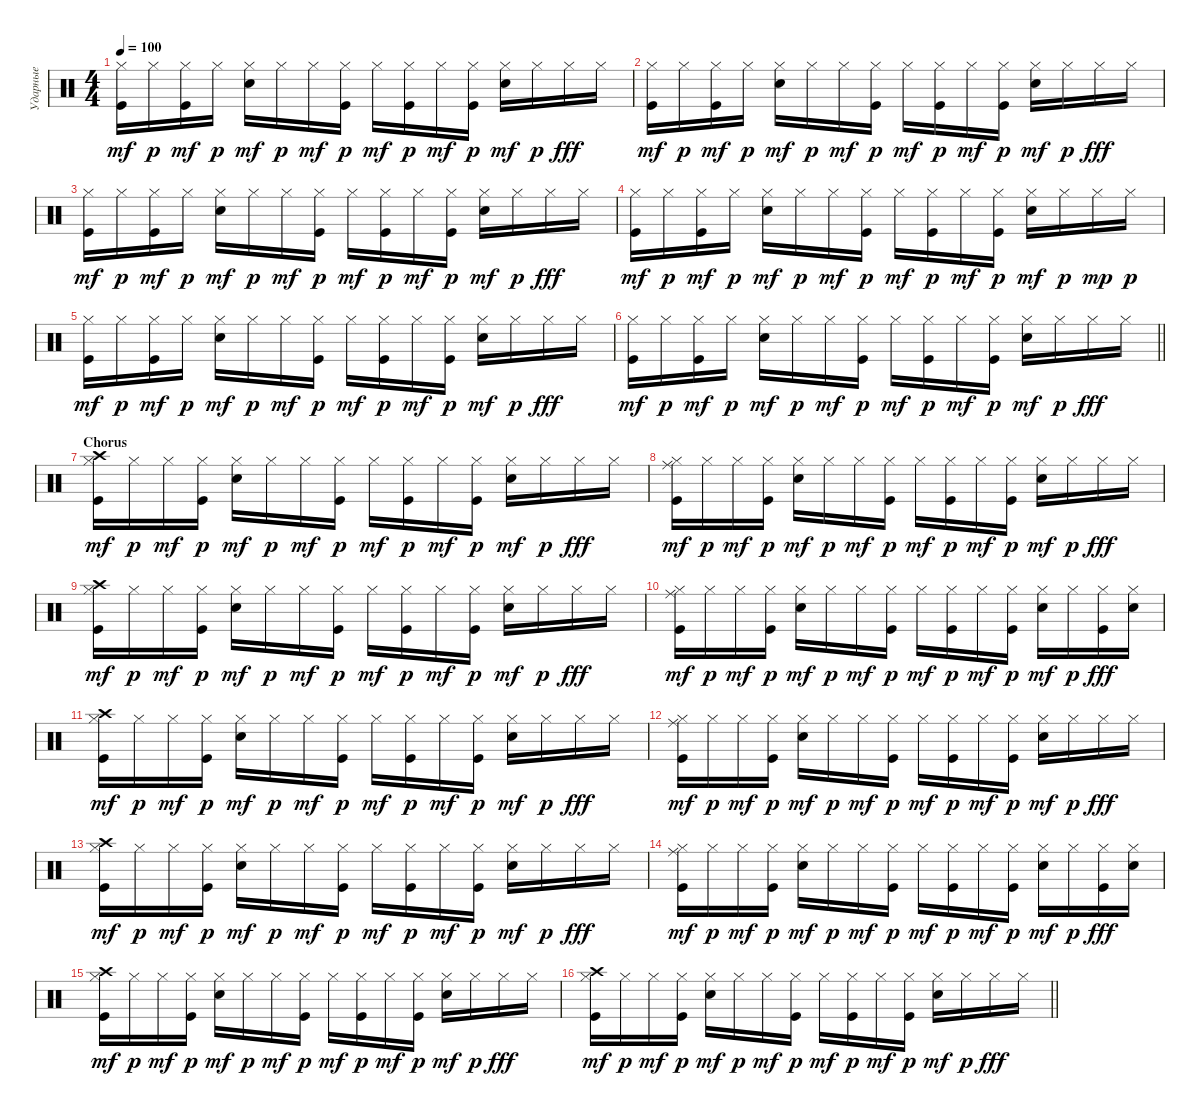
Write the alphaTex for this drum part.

\track ("Ударные" "Ударные") {instrument percussion}
\staff {score}
\articulation defaults
\ts (4 4)
\tempo 100
\clef neutral
\ks c
("Hi-Hat (closed)" "Kick (hit)").16{dy mf} "Hi-Hat (closed)".16{dy p} ("Hi-Hat (closed)" "Kick (hit)").16{dy mf} "Hi-Hat (closed)".16{dy p} ("Hi-Hat (closed)" "Snare (hit) 2").16{dy mf} "Hi-Hat (closed)".16{dy p} "Hi-Hat (closed)".16{dy mf} ("Hi-Hat (closed)" "Kick (hit)").16{dy p} "Hi-Hat (closed)".16{dy mf} ("Hi-Hat (closed)" "Kick (hit)").16{dy p} "Hi-Hat (closed)".16{dy mf} ("Hi-Hat (closed)" "Kick (hit)").16{dy p} ("Hi-Hat (closed)" "Snare (hit) 2").16{dy mf} "Hi-Hat (closed)".16{dy p} "Hi-Hat (closed)".16{dy fff} "Hi-Hat (closed)".16 |
("Hi-Hat (closed)" "Kick (hit)").16{dy mf} "Hi-Hat (closed)".16{dy p} ("Hi-Hat (closed)" "Kick (hit)").16{dy mf} "Hi-Hat (closed)".16{dy p} ("Hi-Hat (closed)" "Snare (hit) 2").16{dy mf} "Hi-Hat (closed)".16{dy p} "Hi-Hat (closed)".16{dy mf} ("Hi-Hat (closed)" "Kick (hit)").16{dy p} "Hi-Hat (closed)".16{dy mf} ("Hi-Hat (closed)" "Kick (hit)").16{dy p} "Hi-Hat (closed)".16{dy mf} ("Hi-Hat (closed)" "Kick (hit)").16{dy p} ("Hi-Hat (closed)" "Snare (hit) 2").16{dy mf} "Hi-Hat (closed)".16{dy p} "Hi-Hat (closed)".16{dy fff} "Hi-Hat (closed)".16 |
("Hi-Hat (closed)" "Kick (hit)").16{dy mf} "Hi-Hat (closed)".16{dy p} ("Hi-Hat (closed)" "Kick (hit)").16{dy mf} "Hi-Hat (closed)".16{dy p} ("Hi-Hat (closed)" "Snare (hit) 2").16{dy mf} "Hi-Hat (closed)".16{dy p} "Hi-Hat (closed)".16{dy mf} ("Hi-Hat (closed)" "Kick (hit)").16{dy p} "Hi-Hat (closed)".16{dy mf} ("Hi-Hat (closed)" "Kick (hit)").16{dy p} "Hi-Hat (closed)".16{dy mf} ("Hi-Hat (closed)" "Kick (hit)").16{dy p} ("Hi-Hat (closed)" "Snare (hit) 2").16{dy mf} "Hi-Hat (closed)".16{dy p} "Hi-Hat (closed)".16{dy fff} "Hi-Hat (closed)".16 |
("Hi-Hat (closed)" "Kick (hit)").16{dy mf} "Hi-Hat (closed)".16{dy p} ("Hi-Hat (closed)" "Kick (hit)").16{dy mf} "Hi-Hat (closed)".16{dy p} ("Hi-Hat (closed)" "Snare (hit) 2").16{dy mf} "Hi-Hat (closed)".16{dy p} "Hi-Hat (closed)".16{dy mf} ("Hi-Hat (closed)" "Kick (hit)").16{dy p} "Hi-Hat (closed)".16{dy mf} ("Hi-Hat (closed)" "Kick (hit)").16{dy p} "Hi-Hat (closed)".16{dy mf} ("Hi-Hat (closed)" "Kick (hit)").16{dy p} ("Hi-Hat (closed)" "Snare (hit) 2").16{dy mf} "Hi-Hat (closed)".16{dy p} "Hi-Hat (closed)".16{dy mp} "Hi-Hat (closed)".16{dy p} |
("Hi-Hat (closed)" "Kick (hit)").16{dy mf} "Hi-Hat (closed)".16{dy p} ("Hi-Hat (closed)" "Kick (hit)").16{dy mf} "Hi-Hat (closed)".16{dy p} ("Hi-Hat (closed)" "Snare (hit) 2").16{dy mf} "Hi-Hat (closed)".16{dy p} "Hi-Hat (closed)".16{dy mf} ("Hi-Hat (closed)" "Kick (hit)").16{dy p} "Hi-Hat (closed)".16{dy mf} ("Hi-Hat (closed)" "Kick (hit)").16{dy p} "Hi-Hat (closed)".16{dy mf} ("Hi-Hat (closed)" "Kick (hit)").16{dy p} ("Hi-Hat (closed)" "Snare (hit) 2").16{dy mf} "Hi-Hat (closed)".16{dy p} "Hi-Hat (closed)".16{dy fff} "Hi-Hat (closed)".16 |
\barLineRight lightlight
("Hi-Hat (closed)" "Kick (hit)").16{dy mf} "Hi-Hat (closed)".16{dy p} ("Hi-Hat (closed)" "Kick (hit)").16{dy mf} "Hi-Hat (closed)".16{dy p} ("Hi-Hat (closed)" "Snare (hit) 2").16{dy mf} "Hi-Hat (closed)".16{dy p} "Hi-Hat (closed)".16{dy mf} ("Hi-Hat (closed)" "Kick (hit)").16{dy p} "Hi-Hat (closed)".16{dy mf} ("Hi-Hat (closed)" "Kick (hit)").16{dy p} "Hi-Hat (closed)".16{dy mf} ("Hi-Hat (closed)" "Kick (hit)").16{dy p} ("Hi-Hat (closed)" "Snare (hit) 2").16{dy mf} "Hi-Hat (closed)".16{dy p} "Hi-Hat (closed)".16{dy fff} "Hi-Hat (closed)".16 |
\section ("" "Chorus")
("Hi-Hat (closed)" "Crash high (hit)" "Kick (hit)").16{dy mf} "Hi-Hat (closed)".16{dy p} "Hi-Hat (closed)".16{dy mf} ("Hi-Hat (closed)" "Kick (hit)").16{dy p} ("Hi-Hat (closed)" "Snare (hit) 2").16{dy mf} "Hi-Hat (closed)".16{dy p} "Hi-Hat (closed)".16{dy mf} ("Hi-Hat (closed)" "Kick (hit)").16{dy p} "Hi-Hat (closed)".16{dy mf} ("Hi-Hat (closed)" "Kick (hit)").16{dy p} "Hi-Hat (closed)".16{dy mf} ("Hi-Hat (closed)" "Kick (hit)").16{dy p} ("Hi-Hat (closed)" "Snare (hit) 2").16{dy mf} "Hi-Hat (closed)".16{dy p} "Hi-Hat (closed)".16{dy fff} "Hi-Hat (closed)".16 |
("Hi-Hat (closed)" "Ride (middle)" "Kick (hit)").16{dy mf} "Hi-Hat (closed)".16{dy p} "Hi-Hat (closed)".16{dy mf} ("Hi-Hat (closed)" "Kick (hit)").16{dy p} ("Hi-Hat (closed)" "Snare (hit) 2").16{dy mf} "Hi-Hat (closed)".16{dy p} "Hi-Hat (closed)".16{dy mf} ("Hi-Hat (closed)" "Kick (hit)").16{dy p} "Hi-Hat (closed)".16{dy mf} ("Hi-Hat (closed)" "Kick (hit)").16{dy p} "Hi-Hat (closed)".16{dy mf} ("Hi-Hat (closed)" "Kick (hit)").16{dy p} ("Hi-Hat (closed)" "Snare (hit) 2").16{dy mf} "Hi-Hat (closed)".16{dy p} "Hi-Hat (closed)".16{dy fff} "Hi-Hat (closed)".16 |
("Hi-Hat (closed)" "Crash high (hit)" "Kick (hit)").16{dy mf} "Hi-Hat (closed)".16{dy p} "Hi-Hat (closed)".16{dy mf} ("Hi-Hat (closed)" "Kick (hit)").16{dy p} ("Hi-Hat (closed)" "Snare (hit) 2").16{dy mf} "Hi-Hat (closed)".16{dy p} "Hi-Hat (closed)".16{dy mf} ("Hi-Hat (closed)" "Kick (hit)").16{dy p} "Hi-Hat (closed)".16{dy mf} ("Hi-Hat (closed)" "Kick (hit)").16{dy p} "Hi-Hat (closed)".16{dy mf} ("Hi-Hat (closed)" "Kick (hit)").16{dy p} ("Hi-Hat (closed)" "Snare (hit) 2").16{dy mf} "Hi-Hat (closed)".16{dy p} "Hi-Hat (closed)".16{dy fff} "Hi-Hat (closed)".16 |
("Hi-Hat (closed)" "Ride (middle)" "Kick (hit)").16{dy mf} "Hi-Hat (closed)".16{dy p} "Hi-Hat (closed)".16{dy mf} ("Hi-Hat (closed)" "Kick (hit)").16{dy p} ("Hi-Hat (closed)" "Snare (hit) 2").16{dy mf} "Hi-Hat (closed)".16{dy p} "Hi-Hat (closed)".16{dy mf} ("Hi-Hat (closed)" "Kick (hit)").16{dy p} "Hi-Hat (closed)".16{dy mf} ("Hi-Hat (closed)" "Kick (hit)").16{dy p} "Hi-Hat (closed)".16{dy mf} ("Hi-Hat (closed)" "Kick (hit)").16{dy p} ("Hi-Hat (closed)" "Snare (hit) 2").16{dy mf} "Hi-Hat (closed)".16{dy p} ("Hi-Hat (closed)" "Kick (hit)").16{dy fff} ("Hi-Hat (closed)" "Snare (hit) 2").16 |
("Hi-Hat (closed)" "Crash high (hit)" "Kick (hit)").16{dy mf} "Hi-Hat (closed)".16{dy p} "Hi-Hat (closed)".16{dy mf} ("Hi-Hat (closed)" "Kick (hit)").16{dy p} ("Hi-Hat (closed)" "Snare (hit) 2").16{dy mf} "Hi-Hat (closed)".16{dy p} "Hi-Hat (closed)".16{dy mf} ("Hi-Hat (closed)" "Kick (hit)").16{dy p} "Hi-Hat (closed)".16{dy mf} ("Hi-Hat (closed)" "Kick (hit)").16{dy p} "Hi-Hat (closed)".16{dy mf} ("Hi-Hat (closed)" "Kick (hit)").16{dy p} ("Hi-Hat (closed)" "Snare (hit) 2").16{dy mf} "Hi-Hat (closed)".16{dy p} "Hi-Hat (closed)".16{dy fff} "Hi-Hat (closed)".16 |
("Hi-Hat (closed)" "Ride (middle)" "Kick (hit)").16{dy mf} "Hi-Hat (closed)".16{dy p} "Hi-Hat (closed)".16{dy mf} ("Hi-Hat (closed)" "Kick (hit)").16{dy p} ("Hi-Hat (closed)" "Snare (hit) 2").16{dy mf} "Hi-Hat (closed)".16{dy p} "Hi-Hat (closed)".16{dy mf} ("Hi-Hat (closed)" "Kick (hit)").16{dy p} "Hi-Hat (closed)".16{dy mf} ("Hi-Hat (closed)" "Kick (hit)").16{dy p} "Hi-Hat (closed)".16{dy mf} ("Hi-Hat (closed)" "Kick (hit)").16{dy p} ("Hi-Hat (closed)" "Snare (hit) 2").16{dy mf} "Hi-Hat (closed)".16{dy p} "Hi-Hat (closed)".16{dy fff} "Hi-Hat (closed)".16 |
("Hi-Hat (closed)" "Crash high (hit)" "Kick (hit)").16{dy mf} "Hi-Hat (closed)".16{dy p} "Hi-Hat (closed)".16{dy mf} ("Hi-Hat (closed)" "Kick (hit)").16{dy p} ("Hi-Hat (closed)" "Snare (hit) 2").16{dy mf} "Hi-Hat (closed)".16{dy p} "Hi-Hat (closed)".16{dy mf} ("Hi-Hat (closed)" "Kick (hit)").16{dy p} "Hi-Hat (closed)".16{dy mf} ("Hi-Hat (closed)" "Kick (hit)").16{dy p} "Hi-Hat (closed)".16{dy mf} ("Hi-Hat (closed)" "Kick (hit)").16{dy p} ("Hi-Hat (closed)" "Snare (hit) 2").16{dy mf} "Hi-Hat (closed)".16{dy p} "Hi-Hat (closed)".16{dy fff} "Hi-Hat (closed)".16 |
("Hi-Hat (closed)" "Ride (middle)" "Kick (hit)").16{dy mf} "Hi-Hat (closed)".16{dy p} "Hi-Hat (closed)".16{dy mf} ("Hi-Hat (closed)" "Kick (hit)").16{dy p} ("Hi-Hat (closed)" "Snare (hit) 2").16{dy mf} "Hi-Hat (closed)".16{dy p} "Hi-Hat (closed)".16{dy mf} ("Hi-Hat (closed)" "Kick (hit)").16{dy p} "Hi-Hat (closed)".16{dy mf} ("Hi-Hat (closed)" "Kick (hit)").16{dy p} "Hi-Hat (closed)".16{dy mf} ("Hi-Hat (closed)" "Kick (hit)").16{dy p} ("Hi-Hat (closed)" "Snare (hit) 2").16{dy mf} "Hi-Hat (closed)".16{dy p} ("Hi-Hat (closed)" "Kick (hit)").16{dy fff} ("Hi-Hat (closed)" "Snare (hit) 2").16 |
("Hi-Hat (closed)" "Crash high (hit)" "Kick (hit)").16{dy mf} "Hi-Hat (closed)".16{dy p} "Hi-Hat (closed)".16{dy mf} ("Hi-Hat (closed)" "Kick (hit)").16{dy p} ("Hi-Hat (closed)" "Snare (hit) 2").16{dy mf} "Hi-Hat (closed)".16{dy p} "Hi-Hat (closed)".16{dy mf} ("Hi-Hat (closed)" "Kick (hit)").16{dy p} "Hi-Hat (closed)".16{dy mf} ("Hi-Hat (closed)" "Kick (hit)").16{dy p} "Hi-Hat (closed)".16{dy mf} ("Hi-Hat (closed)" "Kick (hit)").16{dy p} ("Hi-Hat (closed)" "Snare (hit) 2").16{dy mf} "Hi-Hat (closed)".16{dy p} "Hi-Hat (closed)".16{dy fff} "Hi-Hat (closed)".16 |
\barLineRight lightlight
("Hi-Hat (closed)" "Crash high (hit)" "Kick (hit)").16{dy mf} "Hi-Hat (closed)".16{dy p} "Hi-Hat (closed)".16{dy mf} ("Hi-Hat (closed)" "Kick (hit)").16{dy p} ("Hi-Hat (closed)" "Snare (hit) 2").16{dy mf} "Hi-Hat (closed)".16{dy p} "Hi-Hat (closed)".16{dy mf} ("Hi-Hat (closed)" "Kick (hit)").16{dy p} "Hi-Hat (closed)".16{dy mf} ("Hi-Hat (closed)" "Kick (hit)").16{dy p} "Hi-Hat (closed)".16{dy mf} ("Hi-Hat (closed)" "Kick (hit)").16{dy p} ("Hi-Hat (closed)" "Snare (hit) 2").16{dy mf} "Hi-Hat (closed)".16{dy p} "Hi-Hat (closed)".16{dy fff} "Hi-Hat (closed)".16
